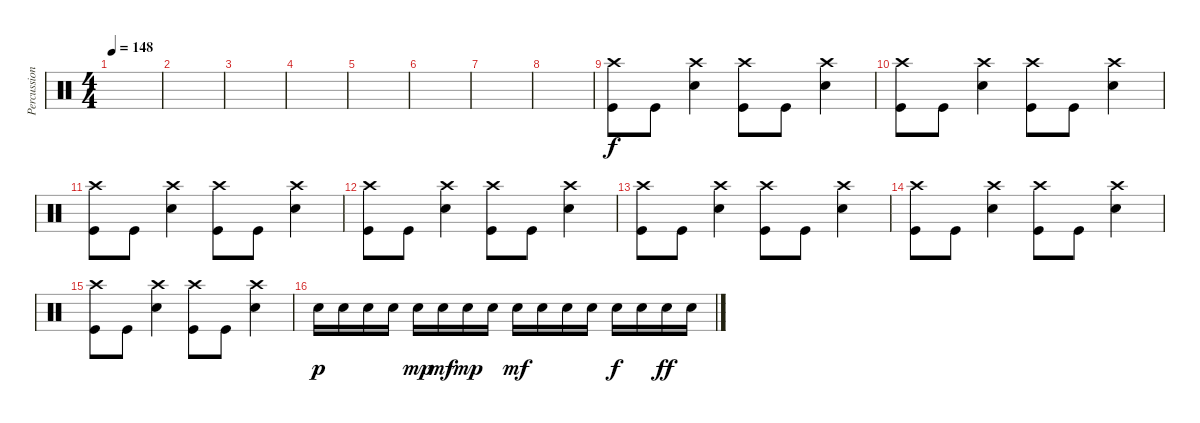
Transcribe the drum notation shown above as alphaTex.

\track ("Percussion" "Percussion") {instrument percussion}
\staff {score}
\articulation defaults
\ts (4 4)
\tempo 148
\clef neutral
\ks c
|
|
|
|
|
|
|
|
("Crash high (hit)" "Kick (hit)").8 "Kick (hit)".8 ("Crash high (hit)" "Electric Snare (hit)").4 ("Crash high (hit)" "Kick (hit)").8 "Kick (hit)".8 ("Crash high (hit)" "Electric Snare (hit)").4 |
("Crash high (hit)" "Kick (hit)").8 "Kick (hit)".8 ("Crash high (hit)" "Electric Snare (hit)").4 ("Crash high (hit)" "Kick (hit)").8 "Kick (hit)".8 ("Crash high (hit)" "Electric Snare (hit)").4 |
("Crash high (hit)" "Kick (hit)").8 "Kick (hit)".8 ("Crash high (hit)" "Electric Snare (hit)").4 ("Crash high (hit)" "Kick (hit)").8 "Kick (hit)".8 ("Crash high (hit)" "Electric Snare (hit)").4 |
("Crash high (hit)" "Kick (hit)").8 "Kick (hit)".8 ("Crash high (hit)" "Electric Snare (hit)").4 ("Crash high (hit)" "Kick (hit)").8 "Kick (hit)".8 ("Crash high (hit)" "Electric Snare (hit)").4 |
("Crash high (hit)" "Kick (hit)").8 "Kick (hit)".8 ("Crash high (hit)" "Electric Snare (hit)").4 ("Crash high (hit)" "Kick (hit)").8 "Kick (hit)".8 ("Crash high (hit)" "Electric Snare (hit)").4 |
("Crash high (hit)" "Kick (hit)").8 "Kick (hit)".8 ("Crash high (hit)" "Electric Snare (hit)").4 ("Crash high (hit)" "Kick (hit)").8 "Kick (hit)".8 ("Crash high (hit)" "Electric Snare (hit)").4 |
("Crash high (hit)" "Kick (hit)").8 "Kick (hit)".8 ("Crash high (hit)" "Electric Snare (hit)").4 ("Crash high (hit)" "Kick (hit)").8 "Kick (hit)".8 ("Crash high (hit)" "Electric Snare (hit)").4 |
"Electric Snare (hit)".16{dy p} "Electric Snare (hit)".16 "Electric Snare (hit)".16 "Electric Snare (hit)".16 "Electric Snare (hit)".16{dy mp} "Electric Snare (hit)".16{dy mf} "Electric Snare (hit)".16{dy mp} "Electric Snare (hit)".16 "Electric Snare (hit)".16{dy mf} "Electric Snare (hit)".16 "Electric Snare (hit)".16 "Electric Snare (hit)".16 "Electric Snare (hit)".16{dy f} "Electric Snare (hit)".16 "Electric Snare (hit)".16{dy ff} "Electric Snare (hit)".16
